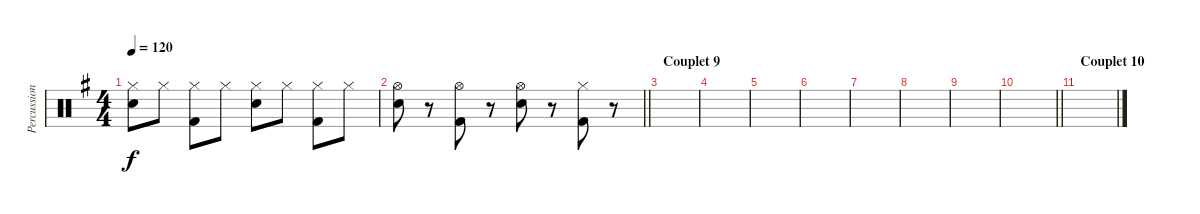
\track ("Percussions" "Percussion") {instrument percussion}
\staff {score}
\articulation defaults
\ts (4 4)
\tempo 120
\clef neutral
\ks g
("Hi-Hat (closed)" "Snare (hit) 2").8{dy f} "Hi-Hat (closed)".8 ("Hi-Hat (closed)" "Kick (hit) 2").8 "Hi-Hat (closed)".8 ("Hi-Hat (closed)" "Snare (hit) 2").8 "Hi-Hat (closed)".8 ("Hi-Hat (closed)" "Kick (hit) 2").8 "Hi-Hat (closed)".8 |
\barLineRight lightlight
("Hi-Hat (open)" "Snare (hit) 2").8 r.8 ("Hi-Hat (open)" "Kick (hit) 2").8 r.8 ("Hi-Hat (open)" "Snare (hit) 2").8 r.8 ("Hi-Hat (closed)" "Kick (hit) 2").8 r.8 |
\section ("" "Couplet 9")
|
|
|
|
|
|
|
\barLineRight lightlight
|
\section ("" "Couplet 10")
